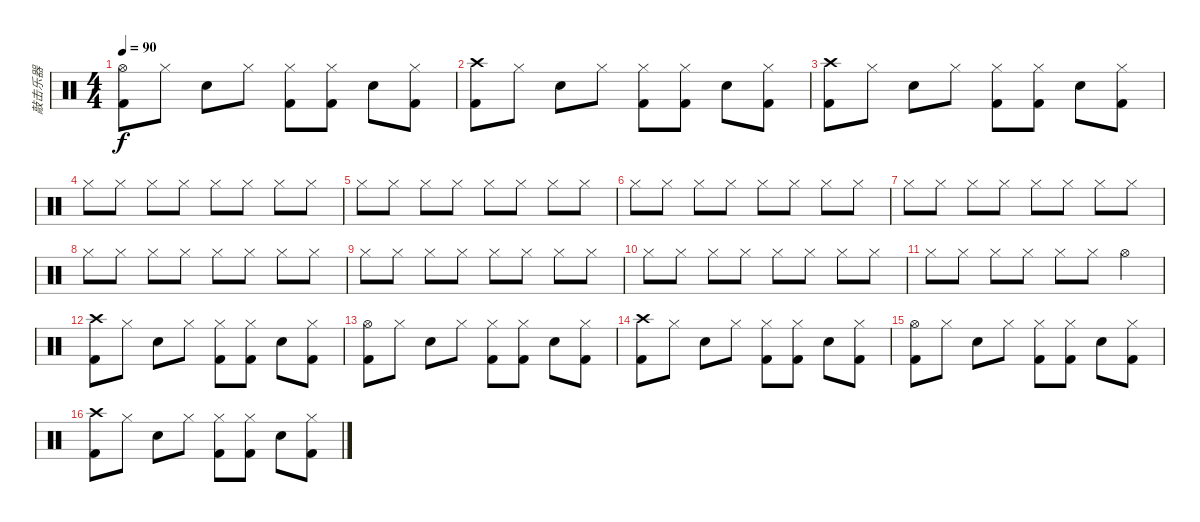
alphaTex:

\track ("敲击乐器" "敲击乐器") {instrument percussion bank 8}
\staff {score}
\articulation defaults
\ts (4 4)
\tempo 90
\clef neutral
\ks c
("Hi-Hat (open)" "Kick (hit) 2").8{dy f} "Hi-Hat (closed)".8 "Electric Snare (hit)".8 "Hi-Hat (closed)".8 ("Hi-Hat (closed)" "Kick (hit) 2").8 ("Hi-Hat (closed)" "Kick (hit) 2").8 "Electric Snare (hit)".8 ("Hi-Hat (closed)" "Kick (hit) 2").8 |
("Crash high (hit)" "Kick (hit) 2").8 "Hi-Hat (closed)".8 "Electric Snare (hit)".8 "Hi-Hat (closed)".8 ("Hi-Hat (closed)" "Kick (hit) 2").8 ("Hi-Hat (closed)" "Kick (hit) 2").8 "Electric Snare (hit)".8 ("Hi-Hat (closed)" "Kick (hit) 2").8 |
("Crash high (hit)" "Kick (hit) 2").8 "Hi-Hat (closed)".8 "Electric Snare (hit)".8 "Hi-Hat (closed)".8 ("Hi-Hat (closed)" "Kick (hit) 2").8 ("Hi-Hat (closed)" "Kick (hit) 2").8 "Electric Snare (hit)".8 ("Hi-Hat (closed)" "Kick (hit) 2").8 |
"Hi-Hat (closed)".8 "Hi-Hat (closed)".8 "Hi-Hat (closed)".8 "Hi-Hat (closed)".8 "Hi-Hat (closed)".8 "Hi-Hat (closed)".8 "Hi-Hat (closed)".8 "Hi-Hat (closed)".8 |
"Hi-Hat (closed)".8 "Hi-Hat (closed)".8 "Hi-Hat (closed)".8 "Hi-Hat (closed)".8 "Hi-Hat (closed)".8 "Hi-Hat (closed)".8 "Hi-Hat (closed)".8 "Hi-Hat (closed)".8 |
"Hi-Hat (closed)".8 "Hi-Hat (closed)".8 "Hi-Hat (closed)".8 "Hi-Hat (closed)".8 "Hi-Hat (closed)".8 "Hi-Hat (closed)".8 "Hi-Hat (closed)".8 "Hi-Hat (closed)".8 |
"Hi-Hat (closed)".8 "Hi-Hat (closed)".8 "Hi-Hat (closed)".8 "Hi-Hat (closed)".8 "Hi-Hat (closed)".8 "Hi-Hat (closed)".8 "Hi-Hat (closed)".8 "Hi-Hat (closed)".8 |
"Hi-Hat (closed)".8 "Hi-Hat (closed)".8 "Hi-Hat (closed)".8 "Hi-Hat (closed)".8 "Hi-Hat (closed)".8 "Hi-Hat (closed)".8 "Hi-Hat (closed)".8 "Hi-Hat (closed)".8 |
"Hi-Hat (closed)".8 "Hi-Hat (closed)".8 "Hi-Hat (closed)".8 "Hi-Hat (closed)".8 "Hi-Hat (closed)".8 "Hi-Hat (closed)".8 "Hi-Hat (closed)".8 "Hi-Hat (closed)".8 |
"Hi-Hat (closed)".8 "Hi-Hat (closed)".8 "Hi-Hat (closed)".8 "Hi-Hat (closed)".8 "Hi-Hat (closed)".8 "Hi-Hat (closed)".8 "Hi-Hat (closed)".8 "Hi-Hat (closed)".8 |
"Hi-Hat (closed)".8 "Hi-Hat (closed)".8 "Hi-Hat (closed)".8 "Hi-Hat (closed)".8 "Hi-Hat (closed)".8 "Hi-Hat (closed)".8 "Hi-Hat (open)".4 |
("Crash high (hit)" "Kick (hit) 2").8 "Hi-Hat (closed)".8 "Electric Snare (hit)".8 "Hi-Hat (closed)".8 ("Hi-Hat (closed)" "Kick (hit) 2").8 ("Hi-Hat (closed)" "Kick (hit) 2").8 "Electric Snare (hit)".8 ("Hi-Hat (closed)" "Kick (hit) 2").8 |
("Hi-Hat (open)" "Kick (hit) 2").8 "Hi-Hat (closed)".8 "Electric Snare (hit)".8 "Hi-Hat (closed)".8 ("Hi-Hat (closed)" "Kick (hit) 2").8 ("Hi-Hat (closed)" "Kick (hit) 2").8 "Electric Snare (hit)".8 ("Hi-Hat (closed)" "Kick (hit) 2").8 |
("Crash high (hit)" "Kick (hit) 2").8 "Hi-Hat (closed)".8 "Electric Snare (hit)".8 "Hi-Hat (closed)".8 ("Hi-Hat (closed)" "Kick (hit) 2").8 ("Hi-Hat (closed)" "Kick (hit) 2").8 "Electric Snare (hit)".8 ("Hi-Hat (closed)" "Kick (hit) 2").8 |
("Hi-Hat (open)" "Kick (hit) 2").8 "Hi-Hat (closed)".8 "Electric Snare (hit)".8 "Hi-Hat (closed)".8 ("Hi-Hat (closed)" "Kick (hit) 2").8 ("Hi-Hat (closed)" "Kick (hit) 2").8 "Electric Snare (hit)".8 ("Hi-Hat (closed)" "Kick (hit) 2").8 |
("Crash high (hit)" "Kick (hit) 2").8 "Hi-Hat (closed)".8 "Electric Snare (hit)".8 "Hi-Hat (closed)".8 ("Hi-Hat (closed)" "Kick (hit) 2").8 ("Hi-Hat (closed)" "Kick (hit) 2").8 "Electric Snare (hit)".8 ("Hi-Hat (closed)" "Kick (hit) 2").8
